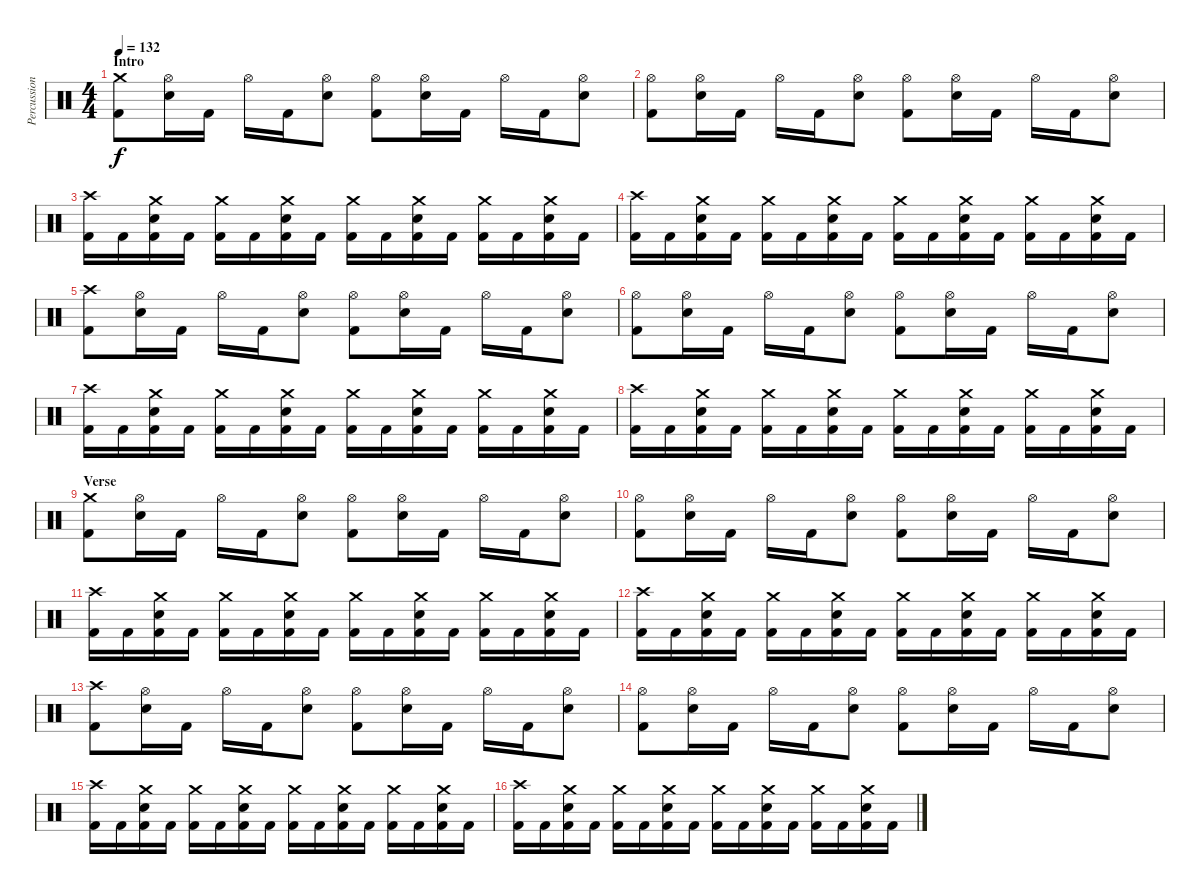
\track ("Percussion" "Percussion") {instrument percussion}
\staff {score}
\articulation defaults
\ts (4 4)
\section ("" "Intro")
\tempo 132
\clef neutral
\ks c
("Crash medium (hit)" "Kick (hit) 2").8{dy f} ("Hi-Hat (open)" "Electric Snare (hit)").16 "Kick (hit) 2".16 "Hi-Hat (open)".16 "Kick (hit) 2".16 ("Hi-Hat (open)" "Electric Snare (hit)").8 ("Hi-Hat (open)" "Kick (hit) 2").8 ("Hi-Hat (open)" "Electric Snare (hit)").16 "Kick (hit) 2".16 "Hi-Hat (open)".16 "Kick (hit) 2".16 ("Hi-Hat (open)" "Electric Snare (hit)").8 |
("Hi-Hat (open)" "Kick (hit) 2").8 ("Hi-Hat (open)" "Electric Snare (hit)").16 "Kick (hit) 2".16 "Hi-Hat (open)".16 "Kick (hit) 2".16 ("Hi-Hat (open)" "Electric Snare (hit)").8 ("Hi-Hat (open)" "Kick (hit) 2").8 ("Hi-Hat (open)" "Electric Snare (hit)").16 "Kick (hit) 2".16 "Hi-Hat (open)".16 "Kick (hit) 2".16 ("Hi-Hat (open)" "Electric Snare (hit)").8 |
("Crash high (hit)" "Kick (hit) 2").16 "Kick (hit) 2".16 ("Crash medium (hit)" "Electric Snare (hit)" "Kick (hit) 2").16 "Kick (hit) 2".16 ("Crash medium (hit)" "Kick (hit) 2").16 "Kick (hit) 2".16 ("Crash medium (hit)" "Electric Snare (hit)" "Kick (hit) 2").16 "Kick (hit) 2".16 ("Crash medium (hit)" "Kick (hit) 2").16 "Kick (hit) 2".16 ("Crash medium (hit)" "Electric Snare (hit)" "Kick (hit) 2").16 "Kick (hit) 2".16 ("Crash medium (hit)" "Kick (hit) 2").16 "Kick (hit) 2".16 ("Crash medium (hit)" "Electric Snare (hit)" "Kick (hit) 2").16 "Kick (hit) 2".16 |
("Crash high (hit)" "Kick (hit) 2").16 "Kick (hit) 2".16 ("Crash medium (hit)" "Electric Snare (hit)" "Kick (hit) 2").16 "Kick (hit) 2".16 ("Crash medium (hit)" "Kick (hit) 2").16 "Kick (hit) 2".16 ("Crash medium (hit)" "Electric Snare (hit)" "Kick (hit) 2").16 "Kick (hit) 2".16 ("Crash medium (hit)" "Kick (hit) 2").16 "Kick (hit) 2".16 ("Crash medium (hit)" "Electric Snare (hit)" "Kick (hit) 2").16 "Kick (hit) 2".16 ("Crash medium (hit)" "Kick (hit) 2").16 "Kick (hit) 2".16 ("Crash medium (hit)" "Electric Snare (hit)" "Kick (hit) 2").16 "Kick (hit) 2".16 |
("Crash high (hit)" "Kick (hit) 2").8 ("Hi-Hat (open)" "Electric Snare (hit)").16 "Kick (hit) 2".16 "Hi-Hat (open)".16 "Kick (hit) 2".16 ("Hi-Hat (open)" "Electric Snare (hit)").8 ("Hi-Hat (open)" "Kick (hit) 2").8 ("Hi-Hat (open)" "Electric Snare (hit)").16 "Kick (hit) 2".16 "Hi-Hat (open)".16 "Kick (hit) 2".16 ("Hi-Hat (open)" "Electric Snare (hit)").8 |
("Hi-Hat (open)" "Kick (hit) 2").8 ("Hi-Hat (open)" "Electric Snare (hit)").16 "Kick (hit) 2".16 "Hi-Hat (open)".16 "Kick (hit) 2".16 ("Hi-Hat (open)" "Electric Snare (hit)").8 ("Hi-Hat (open)" "Kick (hit) 2").8 ("Hi-Hat (open)" "Electric Snare (hit)").16 "Kick (hit) 2".16 "Hi-Hat (open)".16 "Kick (hit) 2".16 ("Hi-Hat (open)" "Electric Snare (hit)").8 |
("Crash high (hit)" "Kick (hit) 2").16 "Kick (hit) 2".16 ("Crash medium (hit)" "Electric Snare (hit)" "Kick (hit) 2").16 "Kick (hit) 2".16 ("Crash medium (hit)" "Kick (hit) 2").16 "Kick (hit) 2".16 ("Crash medium (hit)" "Electric Snare (hit)" "Kick (hit) 2").16 "Kick (hit) 2".16 ("Crash medium (hit)" "Kick (hit) 2").16 "Kick (hit) 2".16 ("Crash medium (hit)" "Electric Snare (hit)" "Kick (hit) 2").16 "Kick (hit) 2".16 ("Crash medium (hit)" "Kick (hit) 2").16 "Kick (hit) 2".16 ("Crash medium (hit)" "Electric Snare (hit)" "Kick (hit) 2").16 "Kick (hit) 2".16 |
("Crash high (hit)" "Kick (hit) 2").16 "Kick (hit) 2".16 ("Crash medium (hit)" "Electric Snare (hit)" "Kick (hit) 2").16 "Kick (hit) 2".16 ("Crash medium (hit)" "Kick (hit) 2").16 "Kick (hit) 2".16 ("Crash medium (hit)" "Electric Snare (hit)" "Kick (hit) 2").16 "Kick (hit) 2".16 ("Crash medium (hit)" "Kick (hit) 2").16 "Kick (hit) 2".16 ("Crash medium (hit)" "Electric Snare (hit)" "Kick (hit) 2").16 "Kick (hit) 2".16 ("Crash medium (hit)" "Kick (hit) 2").16 "Kick (hit) 2".16 ("Crash medium (hit)" "Electric Snare (hit)" "Kick (hit) 2").16 "Kick (hit) 2".16 |
\section ("" "Verse")
("Crash medium (hit)" "Kick (hit) 2").8 ("Hi-Hat (open)" "Electric Snare (hit)").16 "Kick (hit) 2".16 "Hi-Hat (open)".16 "Kick (hit) 2".16 ("Hi-Hat (open)" "Electric Snare (hit)").8 ("Hi-Hat (open)" "Kick (hit) 2").8 ("Hi-Hat (open)" "Electric Snare (hit)").16 "Kick (hit) 2".16 "Hi-Hat (open)".16 "Kick (hit) 2".16 ("Hi-Hat (open)" "Electric Snare (hit)").8 |
("Hi-Hat (open)" "Kick (hit) 2").8 ("Hi-Hat (open)" "Electric Snare (hit)").16 "Kick (hit) 2".16 "Hi-Hat (open)".16 "Kick (hit) 2".16 ("Hi-Hat (open)" "Electric Snare (hit)").8 ("Hi-Hat (open)" "Kick (hit) 2").8 ("Hi-Hat (open)" "Electric Snare (hit)").16 "Kick (hit) 2".16 "Hi-Hat (open)".16 "Kick (hit) 2".16 ("Hi-Hat (open)" "Electric Snare (hit)").8 |
("Crash high (hit)" "Kick (hit) 2").16 "Kick (hit) 2".16 ("Crash medium (hit)" "Electric Snare (hit)" "Kick (hit) 2").16 "Kick (hit) 2".16 ("Crash medium (hit)" "Kick (hit) 2").16 "Kick (hit) 2".16 ("Crash medium (hit)" "Electric Snare (hit)" "Kick (hit) 2").16 "Kick (hit) 2".16 ("Crash medium (hit)" "Kick (hit) 2").16 "Kick (hit) 2".16 ("Crash medium (hit)" "Electric Snare (hit)" "Kick (hit) 2").16 "Kick (hit) 2".16 ("Crash medium (hit)" "Kick (hit) 2").16 "Kick (hit) 2".16 ("Crash medium (hit)" "Electric Snare (hit)" "Kick (hit) 2").16 "Kick (hit) 2".16 |
("Crash high (hit)" "Kick (hit) 2").16 "Kick (hit) 2".16 ("Crash medium (hit)" "Electric Snare (hit)" "Kick (hit) 2").16 "Kick (hit) 2".16 ("Crash medium (hit)" "Kick (hit) 2").16 "Kick (hit) 2".16 ("Crash medium (hit)" "Electric Snare (hit)" "Kick (hit) 2").16 "Kick (hit) 2".16 ("Crash medium (hit)" "Kick (hit) 2").16 "Kick (hit) 2".16 ("Crash medium (hit)" "Electric Snare (hit)" "Kick (hit) 2").16 "Kick (hit) 2".16 ("Crash medium (hit)" "Kick (hit) 2").16 "Kick (hit) 2".16 ("Crash medium (hit)" "Electric Snare (hit)" "Kick (hit) 2").16 "Kick (hit) 2".16 |
("Crash high (hit)" "Kick (hit) 2").8 ("Hi-Hat (open)" "Electric Snare (hit)").16 "Kick (hit) 2".16 "Hi-Hat (open)".16 "Kick (hit) 2".16 ("Hi-Hat (open)" "Electric Snare (hit)").8 ("Hi-Hat (open)" "Kick (hit) 2").8 ("Hi-Hat (open)" "Electric Snare (hit)").16 "Kick (hit) 2".16 "Hi-Hat (open)".16 "Kick (hit) 2".16 ("Hi-Hat (open)" "Electric Snare (hit)").8 |
("Hi-Hat (open)" "Kick (hit) 2").8 ("Hi-Hat (open)" "Electric Snare (hit)").16 "Kick (hit) 2".16 "Hi-Hat (open)".16 "Kick (hit) 2".16 ("Hi-Hat (open)" "Electric Snare (hit)").8 ("Hi-Hat (open)" "Kick (hit) 2").8 ("Hi-Hat (open)" "Electric Snare (hit)").16 "Kick (hit) 2".16 "Hi-Hat (open)".16 "Kick (hit) 2".16 ("Hi-Hat (open)" "Electric Snare (hit)").8 |
("Crash high (hit)" "Kick (hit) 2").16 "Kick (hit) 2".16 ("Crash medium (hit)" "Electric Snare (hit)" "Kick (hit) 2").16 "Kick (hit) 2".16 ("Crash medium (hit)" "Kick (hit) 2").16 "Kick (hit) 2".16 ("Crash medium (hit)" "Electric Snare (hit)" "Kick (hit) 2").16 "Kick (hit) 2".16 ("Crash medium (hit)" "Kick (hit) 2").16 "Kick (hit) 2".16 ("Crash medium (hit)" "Electric Snare (hit)" "Kick (hit) 2").16 "Kick (hit) 2".16 ("Crash medium (hit)" "Kick (hit) 2").16 "Kick (hit) 2".16 ("Crash medium (hit)" "Electric Snare (hit)" "Kick (hit) 2").16 "Kick (hit) 2".16 |
("Crash high (hit)" "Kick (hit) 2").16 "Kick (hit) 2".16 ("Crash medium (hit)" "Electric Snare (hit)" "Kick (hit) 2").16 "Kick (hit) 2".16 ("Crash medium (hit)" "Kick (hit) 2").16 "Kick (hit) 2".16 ("Crash medium (hit)" "Electric Snare (hit)" "Kick (hit) 2").16 "Kick (hit) 2".16 ("Crash medium (hit)" "Kick (hit) 2").16 "Kick (hit) 2".16 ("Crash medium (hit)" "Electric Snare (hit)" "Kick (hit) 2").16 "Kick (hit) 2".16 ("Crash medium (hit)" "Kick (hit) 2").16 "Kick (hit) 2".16 ("Crash medium (hit)" "Electric Snare (hit)" "Kick (hit) 2").16 "Kick (hit) 2".16
